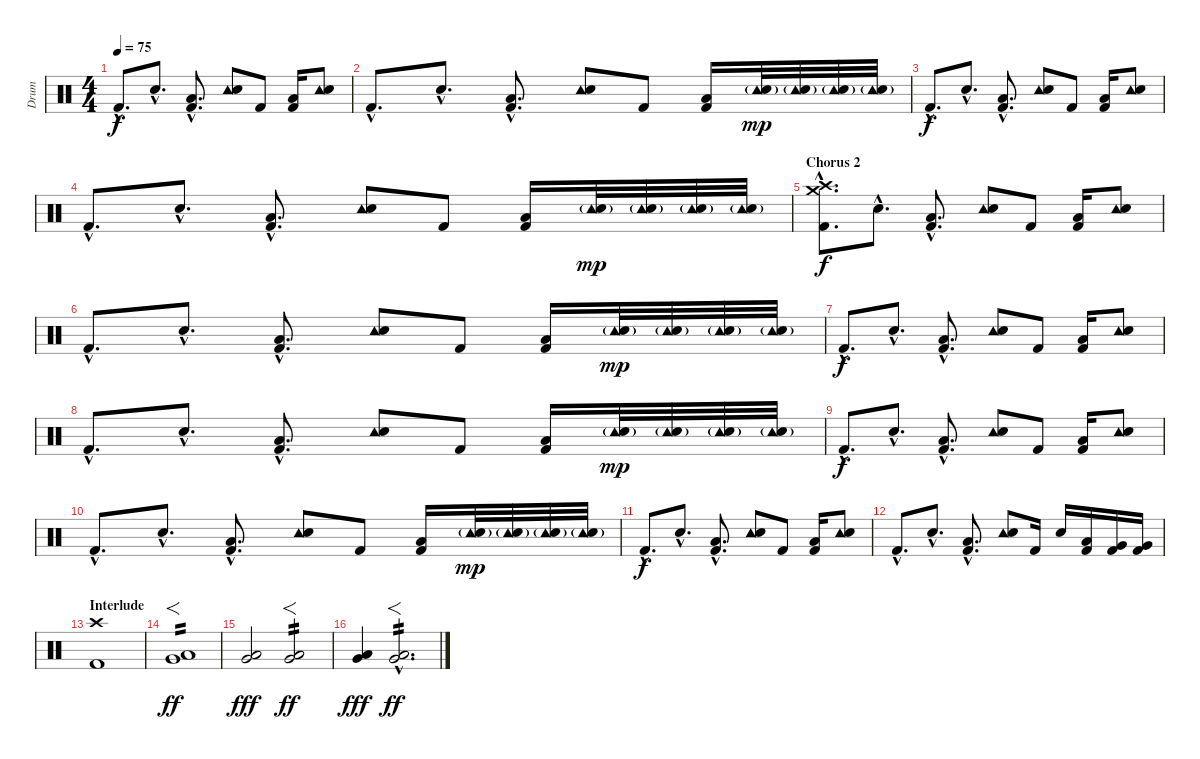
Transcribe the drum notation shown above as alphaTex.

\track ("Drum" "Drum") {instrument percussion}
\staff {score}
\articulation defaults
\ts (4 4)
\tempo 75
\clef neutral
\ks c "Kick (hit) 2"{hac}.8{d dy f} "Snare (hit) 2"{hac}.8{d}
("Low Floor Tom (hit)"{hac} "Kick (hit) 2"{hac}).8{d} ("Tambourine (hit)" "Snare (hit) 2").8 "Kick (hit) 2".8 ("Low Tom (hit)" "Kick (hit) 2").16 ("Tambourine (hit)" "Snare (hit) 2").8 |
"Kick (hit) 2"{hac}.8{d} "Snare (hit) 2"{hac}.8{d} ("Low Floor Tom (hit)"{hac} "Kick (hit) 2"{hac}).8{d} ("Tambourine (hit)" "Snare (hit) 2").8 "Kick (hit) 2".8 ("Low Tom (hit)" "Kick (hit) 2").16 ("Tambourine (hit)" "Electric Snare (hit)"{g}).32{dy mp} ("Tambourine (hit)" "Electric Snare (hit)"{g}).32 ("Tambourine (hit)" "Electric Snare (hit)"{g}).32 ("Tambourine (hit)" "Electric Snare (hit)"{g}).32 |
"Kick (hit) 2"{hac}.8{d dy f} "Snare (hit) 2"{hac}.8{d} ("Low Floor Tom (hit)"{hac} "Kick (hit) 2"{hac}).8{d} ("Tambourine (hit)" "Snare (hit) 2").8 "Kick (hit) 2".8 ("Low Tom (hit)" "Kick (hit) 2").16 ("Tambourine (hit)" "Snare (hit) 2").8 |
"Kick (hit) 2"{hac}.8{d} "Snare (hit) 2"{hac}.8{d} ("Low Floor Tom (hit)"{hac} "Kick (hit) 2"{hac}).8{d} ("Tambourine (hit)" "Snare (hit) 2").8 "Kick (hit) 2".8 ("Low Tom (hit)" "Kick (hit) 2").16 ("Tambourine (hit)" "Electric Snare (hit)"{g}).32{dy mp} ("Tambourine (hit)" "Electric Snare (hit)"{g}).32 ("Tambourine (hit)" "Electric Snare (hit)"{g}).32 ("Tambourine (hit)" "Electric Snare (hit)"{g}).32 |
\section ("" "Chorus 2")
("Crash high (hit)"{hac} "Crash medium (hit)"{hac} "Kick (hit) 2"{hac}).8{d dy f} "Snare (hit) 2"{hac}.8{d} ("Low Floor Tom (hit)"{hac} "Kick (hit) 2"{hac}).8{d} ("Tambourine (hit)" "Snare (hit) 2").8 "Kick (hit) 2".8 ("Low Tom (hit)" "Kick (hit) 2").16 ("Tambourine (hit)" "Snare (hit) 2").8 |
"Kick (hit) 2"{hac}.8{d} "Snare (hit) 2"{hac}.8{d} ("Low Floor Tom (hit)"{hac} "Kick (hit) 2"{hac}).8{d} ("Tambourine (hit)" "Snare (hit) 2").8 "Kick (hit) 2".8 ("Low Tom (hit)" "Kick (hit) 2").16 ("Tambourine (hit)" "Electric Snare (hit)"{g}).32{dy mp} ("Tambourine (hit)" "Electric Snare (hit)"{g}).32 ("Tambourine (hit)" "Electric Snare (hit)"{g}).32 ("Tambourine (hit)" "Electric Snare (hit)"{g}).32 |
"Kick (hit) 2"{hac}.8{d dy f} "Snare (hit) 2"{hac}.8{d} ("Low Floor Tom (hit)"{hac} "Kick (hit) 2"{hac}).8{d} ("Tambourine (hit)" "Snare (hit) 2").8 "Kick (hit) 2".8 ("Low Tom (hit)" "Kick (hit) 2").16 ("Tambourine (hit)" "Snare (hit) 2").8 |
"Kick (hit) 2"{hac}.8{d} "Snare (hit) 2"{hac}.8{d} ("Low Floor Tom (hit)"{hac} "Kick (hit) 2"{hac}).8{d} ("Tambourine (hit)" "Snare (hit) 2").8 "Kick (hit) 2".8 ("Low Tom (hit)" "Kick (hit) 2").16 ("Tambourine (hit)" "Electric Snare (hit)"{g}).32{dy mp} ("Tambourine (hit)" "Electric Snare (hit)"{g}).32 ("Tambourine (hit)" "Electric Snare (hit)"{g}).32 ("Tambourine (hit)" "Electric Snare (hit)"{g}).32 |
"Kick (hit) 2"{hac}.8{d dy f} "Snare (hit) 2"{hac}.8{d} ("Low Floor Tom (hit)"{hac} "Kick (hit) 2"{hac}).8{d} ("Tambourine (hit)" "Snare (hit) 2").8 "Kick (hit) 2".8 ("Low Tom (hit)" "Kick (hit) 2").16 ("Tambourine (hit)" "Snare (hit) 2").8 |
"Kick (hit) 2"{hac}.8{d} "Snare (hit) 2"{hac}.8{d} ("Low Floor Tom (hit)"{hac} "Kick (hit) 2"{hac}).8{d} ("Tambourine (hit)" "Snare (hit) 2").8 "Kick (hit) 2".8 ("Low Tom (hit)" "Kick (hit) 2").16 ("Tambourine (hit)" "Electric Snare (hit)"{g}).32{dy mp} ("Tambourine (hit)" "Electric Snare (hit)"{g}).32 ("Tambourine (hit)" "Electric Snare (hit)"{g}).32 ("Tambourine (hit)" "Electric Snare (hit)"{g}).32 |
"Kick (hit) 2"{hac}.8{d dy f} "Snare (hit) 2"{hac}.8{d} ("Low Floor Tom (hit)"{hac} "Kick (hit) 2"{hac}).8{d} ("Tambourine (hit)" "Snare (hit) 2").8 "Kick (hit) 2".8 ("Low Tom (hit)" "Kick (hit) 2").16 ("Tambourine (hit)" "Snare (hit) 2").8 |
"Kick (hit) 2"{hac}.8{d} "Snare (hit) 2"{hac}.8{d} ("Low Floor Tom (hit)"{hac} "Kick (hit) 2"{hac}).8{d} ("Tambourine (hit)" "Snare (hit) 2").8 "Kick (hit) 2".16 "Snare (hit) 2".16 ("Low Tom (hit)" "Kick (hit) 2").16 ("Very Low Tom (hit)" "Kick (hit) 2").16 ("Very Low Tom (hit)" "Kick (hit) 2").16 |
\section ("" "Interlude")
("Crash high (hit)" "Kick (hit) 2").1 |
("Low Tom (hit)" "Very Low Tom (hit)").1{f tp 2 dy ff} |
("Low Tom (hit)" "Very Low Tom (hit)").2{dy fff} ("Low Tom (hit)" "Very Low Tom (hit)").2{f tp 2 dy ff} |
("Low Tom (hit)" "Very Low Tom (hit)").4{dy fff} ("Low Tom (hit)"{hac} "Very Low Tom (hit)"{hac}).2{f d tp 2 dy ff}
